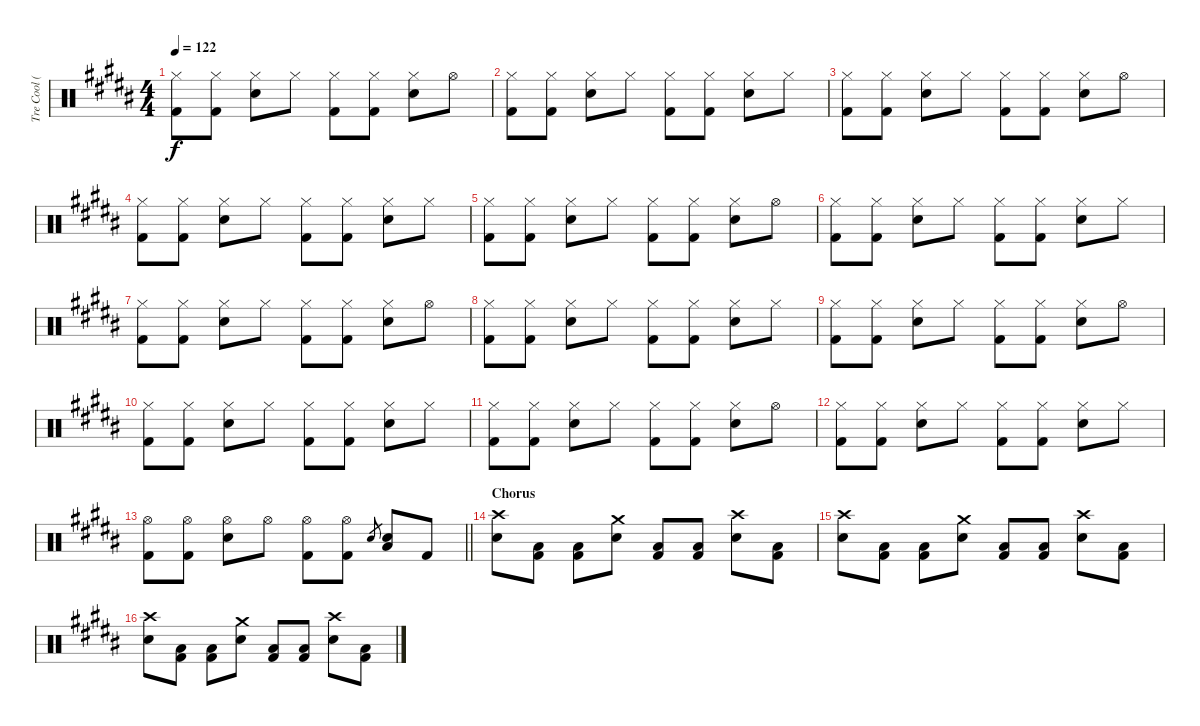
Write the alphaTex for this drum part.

\track ("Tre Cool (Drums)" "Tre Cool (") {instrument percussion}
\staff {score}
\articulation defaults
\ts (4 4)
\tempo 122
\clef neutral
\ks b
("Hi-Hat (closed)" "Kick (hit) 2").8{dy f} ("Hi-Hat (closed)" "Kick (hit) 2").8 ("Hi-Hat (closed)" "Electric Snare (hit)").8 "Hi-Hat (closed)".8 ("Hi-Hat (closed)" "Kick (hit) 2").8 ("Hi-Hat (closed)" "Kick (hit) 2").8 ("Hi-Hat (closed)" "Electric Snare (hit)").8 "Hi-Hat (open)".8 |
("Hi-Hat (closed)" "Kick (hit) 2").8 ("Hi-Hat (closed)" "Kick (hit) 2").8 ("Hi-Hat (closed)" "Electric Snare (hit)").8 "Hi-Hat (closed)".8 ("Hi-Hat (closed)" "Kick (hit) 2").8 ("Hi-Hat (closed)" "Kick (hit) 2").8 ("Hi-Hat (closed)" "Electric Snare (hit)").8 "Hi-Hat (closed)".8 |
("Hi-Hat (closed)" "Kick (hit) 2").8 ("Hi-Hat (closed)" "Kick (hit) 2").8 ("Hi-Hat (closed)" "Electric Snare (hit)").8 "Hi-Hat (closed)".8 ("Hi-Hat (closed)" "Kick (hit) 2").8 ("Hi-Hat (closed)" "Kick (hit) 2").8 ("Hi-Hat (closed)" "Electric Snare (hit)").8 "Hi-Hat (open)".8 |
("Hi-Hat (closed)" "Kick (hit) 2").8 ("Hi-Hat (closed)" "Kick (hit) 2").8 ("Hi-Hat (closed)" "Electric Snare (hit)").8 "Hi-Hat (closed)".8 ("Hi-Hat (closed)" "Kick (hit) 2").8 ("Hi-Hat (closed)" "Kick (hit) 2").8 ("Hi-Hat (closed)" "Electric Snare (hit)").8 "Hi-Hat (closed)".8 |
("Hi-Hat (closed)" "Kick (hit) 2").8 ("Hi-Hat (closed)" "Kick (hit) 2").8 ("Hi-Hat (closed)" "Electric Snare (hit)").8 "Hi-Hat (closed)".8 ("Hi-Hat (closed)" "Kick (hit) 2").8 ("Hi-Hat (closed)" "Kick (hit) 2").8 ("Hi-Hat (closed)" "Electric Snare (hit)").8 "Hi-Hat (open)".8 |
("Hi-Hat (closed)" "Kick (hit) 2").8 ("Hi-Hat (closed)" "Kick (hit) 2").8 ("Hi-Hat (closed)" "Electric Snare (hit)").8 "Hi-Hat (closed)".8 ("Hi-Hat (closed)" "Kick (hit) 2").8 ("Hi-Hat (closed)" "Kick (hit) 2").8 ("Hi-Hat (closed)" "Electric Snare (hit)").8 "Hi-Hat (closed)".8 |
("Hi-Hat (closed)" "Kick (hit) 2").8 ("Hi-Hat (closed)" "Kick (hit) 2").8 ("Hi-Hat (closed)" "Electric Snare (hit)").8 "Hi-Hat (closed)".8 ("Hi-Hat (closed)" "Kick (hit) 2").8 ("Hi-Hat (closed)" "Kick (hit) 2").8 ("Hi-Hat (closed)" "Electric Snare (hit)").8 "Hi-Hat (open)".8 |
("Hi-Hat (closed)" "Kick (hit) 2").8 ("Hi-Hat (closed)" "Kick (hit) 2").8 ("Hi-Hat (closed)" "Electric Snare (hit)").8 "Hi-Hat (closed)".8 ("Hi-Hat (closed)" "Kick (hit) 2").8 ("Hi-Hat (closed)" "Kick (hit) 2").8 ("Hi-Hat (closed)" "Electric Snare (hit)").8 "Hi-Hat (closed)".8 |
("Hi-Hat (closed)" "Kick (hit) 2").8 ("Hi-Hat (closed)" "Kick (hit) 2").8 ("Hi-Hat (closed)" "Electric Snare (hit)").8 "Hi-Hat (closed)".8 ("Hi-Hat (closed)" "Kick (hit) 2").8 ("Hi-Hat (closed)" "Kick (hit) 2").8 ("Hi-Hat (closed)" "Electric Snare (hit)").8 "Hi-Hat (open)".8 |
("Hi-Hat (closed)" "Kick (hit) 2").8 ("Hi-Hat (closed)" "Kick (hit) 2").8 ("Hi-Hat (closed)" "Electric Snare (hit)").8 "Hi-Hat (closed)".8 ("Hi-Hat (closed)" "Kick (hit) 2").8 ("Hi-Hat (closed)" "Kick (hit) 2").8 ("Hi-Hat (closed)" "Electric Snare (hit)").8 "Hi-Hat (closed)".8 |
("Hi-Hat (closed)" "Kick (hit) 2").8 ("Hi-Hat (closed)" "Kick (hit) 2").8 ("Hi-Hat (closed)" "Electric Snare (hit)").8 "Hi-Hat (closed)".8 ("Hi-Hat (closed)" "Kick (hit) 2").8 ("Hi-Hat (closed)" "Kick (hit) 2").8 ("Hi-Hat (closed)" "Electric Snare (hit)").8 "Hi-Hat (open)".8 |
("Hi-Hat (closed)" "Kick (hit) 2").8 ("Hi-Hat (closed)" "Kick (hit) 2").8 ("Hi-Hat (closed)" "Electric Snare (hit)").8 "Hi-Hat (closed)".8 ("Hi-Hat (closed)" "Kick (hit) 2").8 ("Hi-Hat (closed)" "Kick (hit) 2").8 ("Hi-Hat (closed)" "Electric Snare (hit)").8 "Hi-Hat (closed)".8 |
\barLineRight lightlight
("Hi-Hat (open)" "Kick (hit) 2").8 ("Hi-Hat (open)" "Kick (hit) 2").8 ("Hi-Hat (open)" "Electric Snare (hit)").8 "Hi-Hat (open)".8 ("Hi-Hat (open)" "Kick (hit) 2").8 ("Hi-Hat (open)" "Kick (hit) 2").8 "Electric Snare (hit)".8{gr} ("Low Tom (hit)" "Electric Snare (hit)").8 "Kick (hit) 2".8 |
\section ("" "Chorus")
("Crash high (hit)" "Electric Snare (hit)").8 ("Low Tom (hit)" "Kick (hit) 2").8 ("Low Tom (hit)" "Kick (hit) 2").8 ("Crash medium (hit)" "Electric Snare (hit)").8 ("Low Tom (hit)" "Kick (hit) 2").8 ("Low Tom (hit)" "Kick (hit) 2").8 ("Crash high (hit)" "Electric Snare (hit)").8 ("Low Tom (hit)" "Kick (hit) 2").8 |
("Crash high (hit)" "Electric Snare (hit)").8 ("Low Tom (hit)" "Kick (hit) 2").8 ("Low Tom (hit)" "Kick (hit) 2").8 ("Crash medium (hit)" "Electric Snare (hit)").8 ("Low Tom (hit)" "Kick (hit) 2").8 ("Low Tom (hit)" "Kick (hit) 2").8 ("Crash high (hit)" "Electric Snare (hit)").8 ("Low Tom (hit)" "Kick (hit) 2").8 |
("Crash high (hit)" "Electric Snare (hit)").8 ("Low Tom (hit)" "Kick (hit) 2").8 ("Low Tom (hit)" "Kick (hit) 2").8 ("Crash medium (hit)" "Electric Snare (hit)").8 ("Low Tom (hit)" "Kick (hit) 2").8 ("Low Tom (hit)" "Kick (hit) 2").8 ("Crash high (hit)" "Electric Snare (hit)").8 ("Low Tom (hit)" "Kick (hit) 2").8
